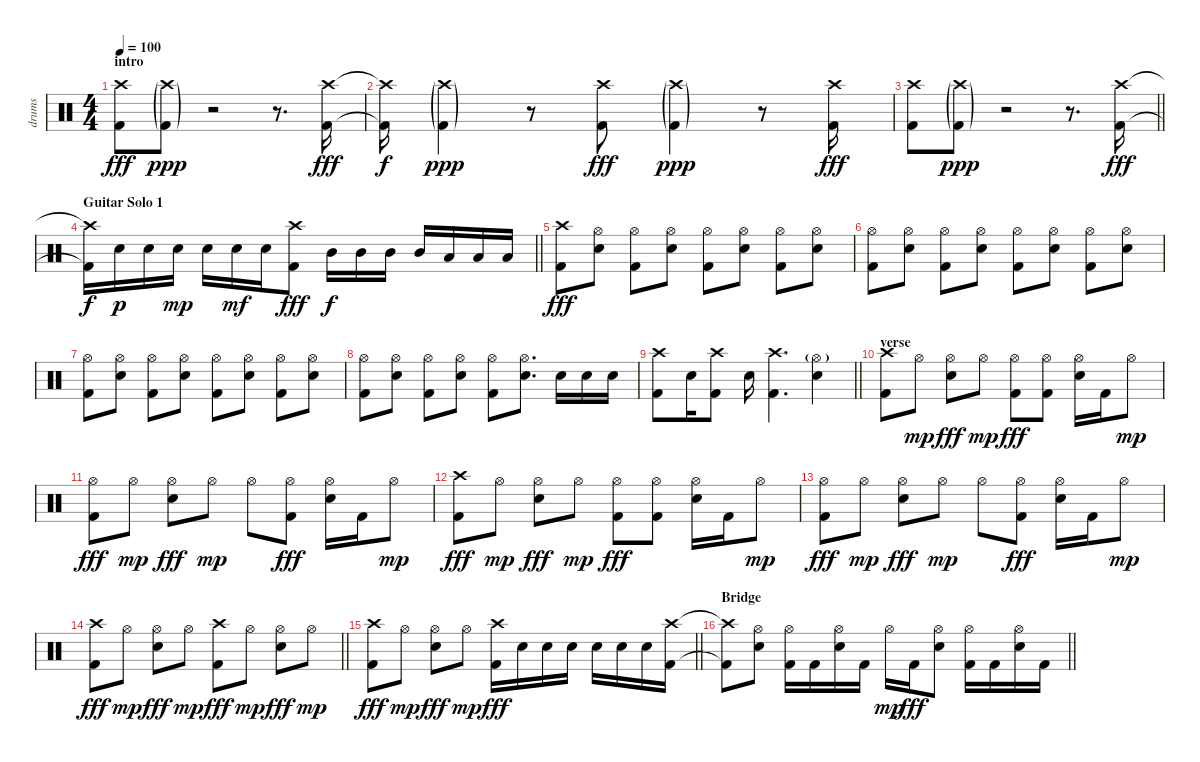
\track ("drums" "drums") {instrument percussion}
\staff {score}
\articulation defaults
\ts (4 4)
\section ("" "intro")
\tempo 100
\clef neutral
\ks c
("Crash high (hit)" "Kick (hit) 2").8{dy fff} ("Crash high (hit)"{g} "Kick (hit) 2"{g}).8{dy ppp volume 0} r.2 r.8{d volume 15} ("Crash high (hit)" "Kick (hit) 2").16{dy fff} |
("Crash high (hit)"{t} "Kick (hit) 2"{t}).16{dy f} ("Crash high (hit)"{g} "Kick (hit) 2"{g}).4{dy ppp volume 0} r.8{volume 15} ("Crash high (hit)" "Kick (hit) 2").8{dy fff} ("Crash high (hit)"{g} "Kick (hit) 2"{g}).4{dy ppp volume 0} r.8{volume 15} ("Crash high (hit)" "Kick (hit) 2").16{dy fff} |
\barLineRight lightlight
("Crash high (hit)" "Kick (hit) 2").8 ("Crash high (hit)"{g} "Kick (hit) 2"{g}).8{dy ppp volume 0} r.2 r.8{d} ("Crash high (hit)" "Kick (hit) 2").16{dy fff volume 15} |
\section ("" "Guitar Solo 1")
\barLineRight lightlight
("Crash high (hit)"{t} "Kick (hit) 2"{t}).16{dy f} "Snare (hit) 2".16{dy p} "Snare (hit) 2".16 "Snare (hit) 2".16{dy mp} "Snare (hit) 2".16 "Snare (hit) 2".16{dy mf} "Snare (hit) 2".16 ("Crash high (hit)" "Kick (hit) 2").8{dy fff} "Mid Tom (hit)".16{dy f} "Mid Tom (hit)".16 "Mid Tom (hit)".16 "Mid Tom (hit)".16 "Low Tom (hit)".16 "Low Tom (hit)".16 "Low Tom (hit)".16 |
("Crash high (hit)" "Kick (hit) 2").8{dy fff} ("Hi-Hat (open)" "Snare (hit) 2").8 ("Hi-Hat (open)" "Kick (hit) 2").8 ("Hi-Hat (open)" "Snare (hit) 2").8 ("Hi-Hat (open)" "Kick (hit) 2").8 ("Hi-Hat (open)" "Snare (hit) 2").8 ("Hi-Hat (open)" "Kick (hit) 2").8 ("Hi-Hat (open)" "Snare (hit) 2").8 |
("Hi-Hat (open)" "Kick (hit) 2").8 ("Hi-Hat (open)" "Snare (hit) 2").8 ("Hi-Hat (open)" "Kick (hit) 2").8 ("Hi-Hat (open)" "Snare (hit) 2").8 ("Hi-Hat (open)" "Kick (hit) 2").8 ("Hi-Hat (open)" "Snare (hit) 2").8 ("Hi-Hat (open)" "Kick (hit) 2").8 ("Hi-Hat (open)" "Snare (hit) 2").8 |
("Hi-Hat (open)" "Kick (hit) 2").8 ("Hi-Hat (open)" "Snare (hit) 2").8 ("Hi-Hat (open)" "Kick (hit) 2").8 ("Hi-Hat (open)" "Snare (hit) 2").8 ("Hi-Hat (open)" "Kick (hit) 2").8 ("Hi-Hat (open)" "Snare (hit) 2").8 ("Hi-Hat (open)" "Kick (hit) 2").8 ("Hi-Hat (open)" "Snare (hit) 2").8 |
("Hi-Hat (open)" "Kick (hit) 2").8 ("Hi-Hat (open)" "Snare (hit) 2").8 ("Hi-Hat (open)" "Kick (hit) 2").8 ("Hi-Hat (open)" "Snare (hit) 2").8 ("Hi-Hat (open)" "Kick (hit) 2").8 ("Hi-Hat (open)" "Snare (hit) 2").8{d} "Snare (hit) 2".16 "Snare (hit) 2".16 "Snare (hit) 2".16 |
\barLineRight lightlight
("Crash high (hit)" "Kick (hit) 2").8 "Snare (hit) 2".16 ("Crash high (hit)" "Kick (hit) 2").8 "Snare (hit) 2".16 ("Crash high (hit)" "Kick (hit) 2").4{d} ("Hi-Hat (open)"{g} "Snare (hit) 2").4 |
\section ("" "verse")
("Crash high (hit)" "Kick (hit) 2").8 "Hi-Hat (open)".8{dy mp} ("Hi-Hat (open)" "Snare (hit) 2").8{dy fff} "Hi-Hat (open)".8{dy mp} ("Hi-Hat (open)" "Kick (hit) 2").8{dy fff} ("Hi-Hat (open)" "Kick (hit) 2").8 ("Hi-Hat (open)" "Snare (hit) 2").16 "Kick (hit) 2".16 "Hi-Hat (open)".8{dy mp} |
("Hi-Hat (open)" "Kick (hit) 2").8{dy fff} "Hi-Hat (open)".8{dy mp} ("Hi-Hat (open)" "Snare (hit) 2").8{dy fff} "Hi-Hat (open)".8{dy mp} "Hi-Hat (open)".8 ("Hi-Hat (open)" "Kick (hit) 2").8{dy fff} ("Hi-Hat (open)" "Snare (hit) 2").16 "Kick (hit) 2".16 "Hi-Hat (open)".8{dy mp} |
("Crash high (hit)" "Kick (hit) 2").8{dy fff} "Hi-Hat (open)".8{dy mp} ("Hi-Hat (open)" "Snare (hit) 2").8{dy fff} "Hi-Hat (open)".8{dy mp} ("Hi-Hat (open)" "Kick (hit) 2").8{dy fff} ("Hi-Hat (open)" "Kick (hit) 2").8 ("Hi-Hat (open)" "Snare (hit) 2").16 "Kick (hit) 2".16 "Hi-Hat (open)".8{dy mp} |
("Hi-Hat (open)" "Kick (hit) 2").8{dy fff} "Hi-Hat (open)".8{dy mp} ("Hi-Hat (open)" "Snare (hit) 2").8{dy fff} "Hi-Hat (open)".8{dy mp} "Hi-Hat (open)".8 ("Hi-Hat (open)" "Kick (hit) 2").8{dy fff} ("Hi-Hat (open)" "Snare (hit) 2").16 "Kick (hit) 2".16 "Hi-Hat (open)".8{dy mp} |
\barLineRight lightlight
("Crash high (hit)" "Kick (hit) 2").8{dy fff} "Hi-Hat (open)".8{dy mp} ("Hi-Hat (open)" "Snare (hit) 2").8{dy fff} "Hi-Hat (open)".8{dy mp} ("Crash high (hit)" "Kick (hit) 2").8{dy fff} "Hi-Hat (open)".8{dy mp} ("Hi-Hat (open)" "Snare (hit) 2").8{dy fff} "Hi-Hat (open)".8{dy mp} |
\barLineRight lightlight
("Crash high (hit)" "Kick (hit) 2").8{dy fff} "Hi-Hat (open)".8{dy mp} ("Hi-Hat (open)" "Snare (hit) 2").8{dy fff} "Hi-Hat (open)".8{dy mp} ("Crash high (hit)" "Kick (hit) 2").16{dy fff} "Snare (hit) 2".16 "Snare (hit) 2".16 "Snare (hit) 2".16 "Snare (hit) 2".16 "Snare (hit) 2".16 "Snare (hit) 2".16 ("Crash high (hit)" "Kick (hit) 2").16 |
\section ("" "Bridge")
\barLineRight lightlight
("Crash high (hit)"{t} "Kick (hit) 2"{t}).8 ("Hi-Hat (open)" "Snare (hit) 2").8 ("Hi-Hat (open)" "Kick (hit) 2").16 "Kick (hit) 2".16 ("Hi-Hat (open)" "Snare (hit) 2").16 "Kick (hit) 2".16 "Hi-Hat (open)".16{dy mp} "Kick (hit) 2".16{dy fff} ("Hi-Hat (open)" "Snare (hit) 2").8 ("Hi-Hat (open)" "Kick (hit) 2").16 "Kick (hit) 2".16 ("Hi-Hat (open)" "Snare (hit) 2").16 "Kick (hit) 2".16
